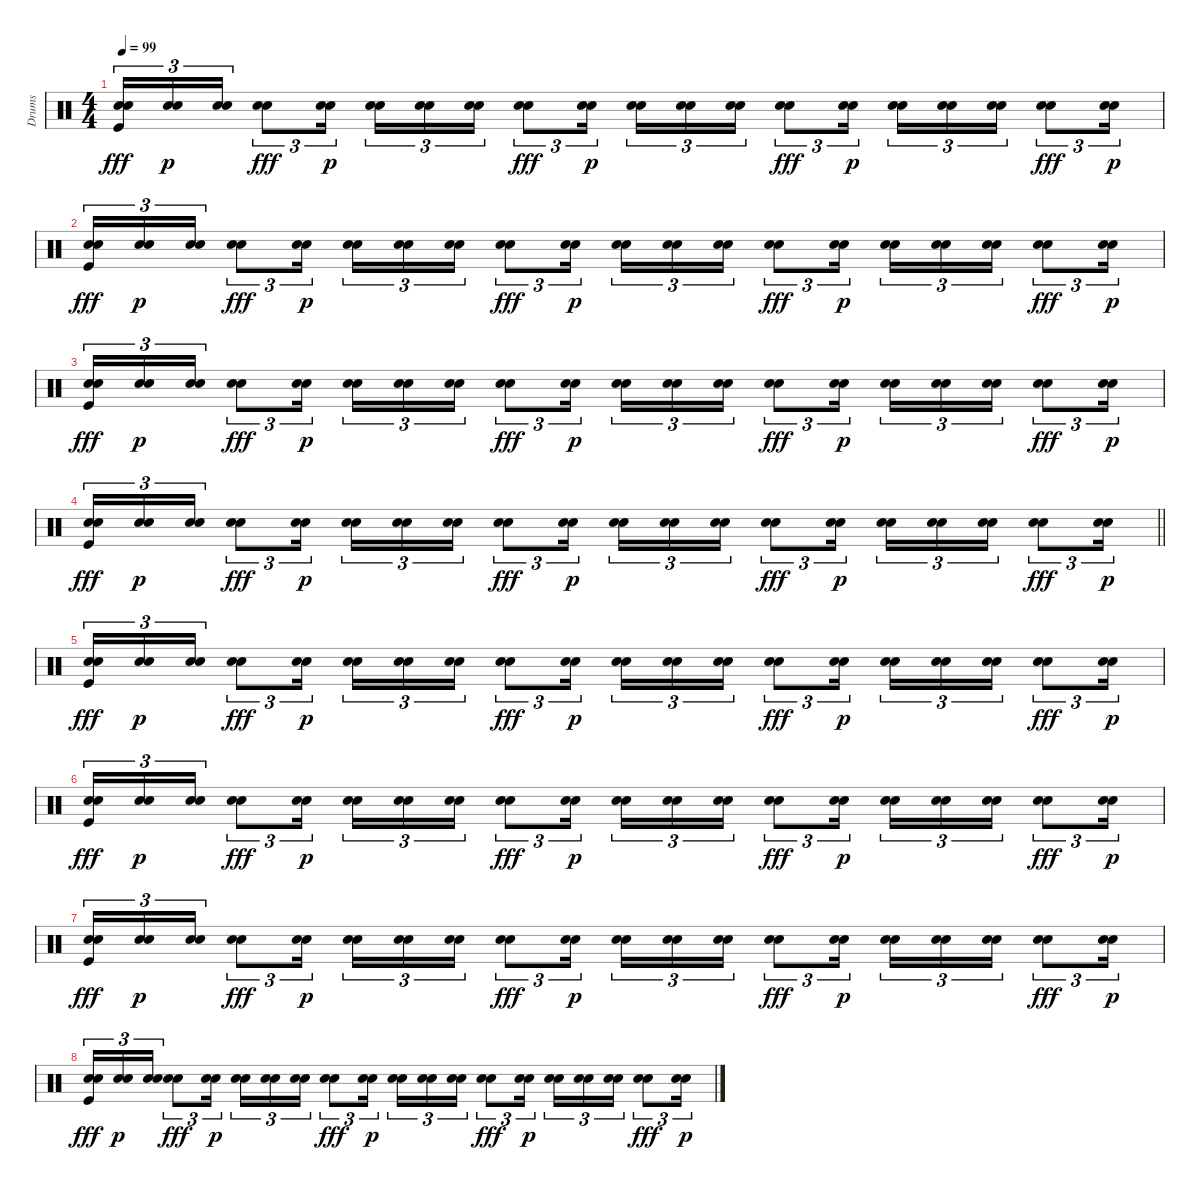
\track ("Drums" "Drums") {instrument percussion}
\staff {score}
\articulation defaults
\ts (4 4)
\tempo 99
\clef neutral
\ks c
("Snare (hit) 2" "Electric Snare (hit)" "Kick (hit)").16{tu (3 2) dy fff} ("Snare (hit) 2" "Electric Snare (hit)").16{tu (3 2) dy p} ("Snare (hit) 2" "Electric Snare (hit)").16{tu (3 2)} ("Snare (hit) 2" "Electric Snare (hit)").8{tu (3 2) dy fff} ("Snare (hit) 2" "Electric Snare (hit)").16{tu (3 2) dy p} ("Snare (hit) 2" "Electric Snare (hit)").16{tu (3 2)} ("Snare (hit) 2" "Electric Snare (hit)").16{tu (3 2)} ("Snare (hit) 2" "Electric Snare (hit)").16{tu (3 2)} ("Snare (hit) 2" "Electric Snare (hit)").8{tu (3 2) dy fff} ("Snare (hit) 2" "Electric Snare (hit)").16{tu (3 2) dy p} ("Snare (hit) 2" "Electric Snare (hit)").16{tu (3 2)} ("Snare (hit) 2" "Electric Snare (hit)").16{tu (3 2)} ("Snare (hit) 2" "Electric Snare (hit)").16{tu (3 2)} ("Snare (hit) 2" "Electric Snare (hit)").8{tu (3 2) dy fff} ("Snare (hit) 2" "Electric Snare (hit)").16{tu (3 2) dy p} ("Snare (hit) 2" "Electric Snare (hit)").16{tu (3 2)} ("Snare (hit) 2" "Electric Snare (hit)").16{tu (3 2)} ("Snare (hit) 2" "Electric Snare (hit)").16{tu (3 2)} ("Snare (hit) 2" "Electric Snare (hit)").8{tu (3 2) dy fff} ("Snare (hit) 2" "Electric Snare (hit)").16{tu (3 2) dy p} |
("Snare (hit) 2" "Electric Snare (hit)" "Kick (hit)").16{tu (3 2) dy fff} ("Snare (hit) 2" "Electric Snare (hit)").16{tu (3 2) dy p} ("Snare (hit) 2" "Electric Snare (hit)").16{tu (3 2)} ("Snare (hit) 2" "Electric Snare (hit)").8{tu (3 2) dy fff} ("Snare (hit) 2" "Electric Snare (hit)").16{tu (3 2) dy p} ("Snare (hit) 2" "Electric Snare (hit)").16{tu (3 2)} ("Snare (hit) 2" "Electric Snare (hit)").16{tu (3 2)} ("Snare (hit) 2" "Electric Snare (hit)").16{tu (3 2)} ("Snare (hit) 2" "Electric Snare (hit)").8{tu (3 2) dy fff} ("Snare (hit) 2" "Electric Snare (hit)").16{tu (3 2) dy p} ("Snare (hit) 2" "Electric Snare (hit)").16{tu (3 2)} ("Snare (hit) 2" "Electric Snare (hit)").16{tu (3 2)} ("Snare (hit) 2" "Electric Snare (hit)").16{tu (3 2)} ("Snare (hit) 2" "Electric Snare (hit)").8{tu (3 2) dy fff} ("Snare (hit) 2" "Electric Snare (hit)").16{tu (3 2) dy p} ("Snare (hit) 2" "Electric Snare (hit)").16{tu (3 2)} ("Snare (hit) 2" "Electric Snare (hit)").16{tu (3 2)} ("Snare (hit) 2" "Electric Snare (hit)").16{tu (3 2)} ("Snare (hit) 2" "Electric Snare (hit)").8{tu (3 2) dy fff} ("Snare (hit) 2" "Electric Snare (hit)").16{tu (3 2) dy p} |
("Snare (hit) 2" "Electric Snare (hit)" "Kick (hit)").16{tu (3 2) dy fff} ("Snare (hit) 2" "Electric Snare (hit)").16{tu (3 2) dy p} ("Snare (hit) 2" "Electric Snare (hit)").16{tu (3 2)} ("Snare (hit) 2" "Electric Snare (hit)").8{tu (3 2) dy fff} ("Snare (hit) 2" "Electric Snare (hit)").16{tu (3 2) dy p} ("Snare (hit) 2" "Electric Snare (hit)").16{tu (3 2)} ("Snare (hit) 2" "Electric Snare (hit)").16{tu (3 2)} ("Snare (hit) 2" "Electric Snare (hit)").16{tu (3 2)} ("Snare (hit) 2" "Electric Snare (hit)").8{tu (3 2) dy fff} ("Snare (hit) 2" "Electric Snare (hit)").16{tu (3 2) dy p} ("Snare (hit) 2" "Electric Snare (hit)").16{tu (3 2)} ("Snare (hit) 2" "Electric Snare (hit)").16{tu (3 2)} ("Snare (hit) 2" "Electric Snare (hit)").16{tu (3 2)} ("Snare (hit) 2" "Electric Snare (hit)").8{tu (3 2) dy fff} ("Snare (hit) 2" "Electric Snare (hit)").16{tu (3 2) dy p} ("Snare (hit) 2" "Electric Snare (hit)").16{tu (3 2)} ("Snare (hit) 2" "Electric Snare (hit)").16{tu (3 2)} ("Snare (hit) 2" "Electric Snare (hit)").16{tu (3 2)} ("Snare (hit) 2" "Electric Snare (hit)").8{tu (3 2) dy fff} ("Snare (hit) 2" "Electric Snare (hit)").16{tu (3 2) dy p} |
\barLineRight lightlight
("Snare (hit) 2" "Electric Snare (hit)" "Kick (hit)").16{tu (3 2) dy fff} ("Snare (hit) 2" "Electric Snare (hit)").16{tu (3 2) dy p} ("Snare (hit) 2" "Electric Snare (hit)").16{tu (3 2)} ("Snare (hit) 2" "Electric Snare (hit)").8{tu (3 2) dy fff} ("Snare (hit) 2" "Electric Snare (hit)").16{tu (3 2) dy p} ("Snare (hit) 2" "Electric Snare (hit)").16{tu (3 2)} ("Snare (hit) 2" "Electric Snare (hit)").16{tu (3 2)} ("Snare (hit) 2" "Electric Snare (hit)").16{tu (3 2)} ("Snare (hit) 2" "Electric Snare (hit)").8{tu (3 2) dy fff} ("Snare (hit) 2" "Electric Snare (hit)").16{tu (3 2) dy p} ("Snare (hit) 2" "Electric Snare (hit)").16{tu (3 2)} ("Snare (hit) 2" "Electric Snare (hit)").16{tu (3 2)} ("Snare (hit) 2" "Electric Snare (hit)").16{tu (3 2)} ("Snare (hit) 2" "Electric Snare (hit)").8{tu (3 2) dy fff} ("Snare (hit) 2" "Electric Snare (hit)").16{tu (3 2) dy p} ("Snare (hit) 2" "Electric Snare (hit)").16{tu (3 2)} ("Snare (hit) 2" "Electric Snare (hit)").16{tu (3 2)} ("Snare (hit) 2" "Electric Snare (hit)").16{tu (3 2)} ("Snare (hit) 2" "Electric Snare (hit)").8{tu (3 2) dy fff} ("Snare (hit) 2" "Electric Snare (hit)").16{tu (3 2) dy p} |
("Snare (hit) 2" "Electric Snare (hit)" "Kick (hit)").16{tu (3 2) dy fff} ("Snare (hit) 2" "Electric Snare (hit)").16{tu (3 2) dy p} ("Snare (hit) 2" "Electric Snare (hit)").16{tu (3 2)} ("Snare (hit) 2" "Electric Snare (hit)").8{tu (3 2) dy fff} ("Snare (hit) 2" "Electric Snare (hit)").16{tu (3 2) dy p} ("Snare (hit) 2" "Electric Snare (hit)").16{tu (3 2)} ("Snare (hit) 2" "Electric Snare (hit)").16{tu (3 2)} ("Snare (hit) 2" "Electric Snare (hit)").16{tu (3 2)} ("Snare (hit) 2" "Electric Snare (hit)").8{tu (3 2) dy fff} ("Snare (hit) 2" "Electric Snare (hit)").16{tu (3 2) dy p} ("Snare (hit) 2" "Electric Snare (hit)").16{tu (3 2)} ("Snare (hit) 2" "Electric Snare (hit)").16{tu (3 2)} ("Snare (hit) 2" "Electric Snare (hit)").16{tu (3 2)} ("Snare (hit) 2" "Electric Snare (hit)").8{tu (3 2) dy fff} ("Snare (hit) 2" "Electric Snare (hit)").16{tu (3 2) dy p} ("Snare (hit) 2" "Electric Snare (hit)").16{tu (3 2)} ("Snare (hit) 2" "Electric Snare (hit)").16{tu (3 2)} ("Snare (hit) 2" "Electric Snare (hit)").16{tu (3 2)} ("Snare (hit) 2" "Electric Snare (hit)").8{tu (3 2) dy fff} ("Snare (hit) 2" "Electric Snare (hit)").16{tu (3 2) dy p} |
("Snare (hit) 2" "Electric Snare (hit)" "Kick (hit)").16{tu (3 2) dy fff} ("Snare (hit) 2" "Electric Snare (hit)").16{tu (3 2) dy p} ("Snare (hit) 2" "Electric Snare (hit)").16{tu (3 2)} ("Snare (hit) 2" "Electric Snare (hit)").8{tu (3 2) dy fff} ("Snare (hit) 2" "Electric Snare (hit)").16{tu (3 2) dy p} ("Snare (hit) 2" "Electric Snare (hit)").16{tu (3 2)} ("Snare (hit) 2" "Electric Snare (hit)").16{tu (3 2)} ("Snare (hit) 2" "Electric Snare (hit)").16{tu (3 2)} ("Snare (hit) 2" "Electric Snare (hit)").8{tu (3 2) dy fff} ("Snare (hit) 2" "Electric Snare (hit)").16{tu (3 2) dy p} ("Snare (hit) 2" "Electric Snare (hit)").16{tu (3 2)} ("Snare (hit) 2" "Electric Snare (hit)").16{tu (3 2)} ("Snare (hit) 2" "Electric Snare (hit)").16{tu (3 2)} ("Snare (hit) 2" "Electric Snare (hit)").8{tu (3 2) dy fff} ("Snare (hit) 2" "Electric Snare (hit)").16{tu (3 2) dy p} ("Snare (hit) 2" "Electric Snare (hit)").16{tu (3 2)} ("Snare (hit) 2" "Electric Snare (hit)").16{tu (3 2)} ("Snare (hit) 2" "Electric Snare (hit)").16{tu (3 2)} ("Snare (hit) 2" "Electric Snare (hit)").8{tu (3 2) dy fff} ("Snare (hit) 2" "Electric Snare (hit)").16{tu (3 2) dy p} |
("Snare (hit) 2" "Electric Snare (hit)" "Kick (hit)").16{tu (3 2) dy fff} ("Snare (hit) 2" "Electric Snare (hit)").16{tu (3 2) dy p} ("Snare (hit) 2" "Electric Snare (hit)").16{tu (3 2)} ("Snare (hit) 2" "Electric Snare (hit)").8{tu (3 2) dy fff} ("Snare (hit) 2" "Electric Snare (hit)").16{tu (3 2) dy p} ("Snare (hit) 2" "Electric Snare (hit)").16{tu (3 2)} ("Snare (hit) 2" "Electric Snare (hit)").16{tu (3 2)} ("Snare (hit) 2" "Electric Snare (hit)").16{tu (3 2)} ("Snare (hit) 2" "Electric Snare (hit)").8{tu (3 2) dy fff} ("Snare (hit) 2" "Electric Snare (hit)").16{tu (3 2) dy p} ("Snare (hit) 2" "Electric Snare (hit)").16{tu (3 2)} ("Snare (hit) 2" "Electric Snare (hit)").16{tu (3 2)} ("Snare (hit) 2" "Electric Snare (hit)").16{tu (3 2)} ("Snare (hit) 2" "Electric Snare (hit)").8{tu (3 2) dy fff} ("Snare (hit) 2" "Electric Snare (hit)").16{tu (3 2) dy p} ("Snare (hit) 2" "Electric Snare (hit)").16{tu (3 2)} ("Snare (hit) 2" "Electric Snare (hit)").16{tu (3 2)} ("Snare (hit) 2" "Electric Snare (hit)").16{tu (3 2)} ("Snare (hit) 2" "Electric Snare (hit)").8{tu (3 2) dy fff} ("Snare (hit) 2" "Electric Snare (hit)").16{tu (3 2) dy p} |
("Snare (hit) 2" "Electric Snare (hit)" "Kick (hit)").16{tu (3 2) dy fff} ("Snare (hit) 2" "Electric Snare (hit)").16{tu (3 2) dy p} ("Snare (hit) 2" "Electric Snare (hit)").16{tu (3 2)} ("Snare (hit) 2" "Electric Snare (hit)").8{tu (3 2) dy fff} ("Snare (hit) 2" "Electric Snare (hit)").16{tu (3 2) dy p} ("Snare (hit) 2" "Electric Snare (hit)").16{tu (3 2)} ("Snare (hit) 2" "Electric Snare (hit)").16{tu (3 2)} ("Snare (hit) 2" "Electric Snare (hit)").16{tu (3 2)} ("Snare (hit) 2" "Electric Snare (hit)").8{tu (3 2) dy fff} ("Snare (hit) 2" "Electric Snare (hit)").16{tu (3 2) dy p} ("Snare (hit) 2" "Electric Snare (hit)").16{tu (3 2)} ("Snare (hit) 2" "Electric Snare (hit)").16{tu (3 2)} ("Snare (hit) 2" "Electric Snare (hit)").16{tu (3 2)} ("Snare (hit) 2" "Electric Snare (hit)").8{tu (3 2) dy fff} ("Snare (hit) 2" "Electric Snare (hit)").16{tu (3 2) dy p} ("Snare (hit) 2" "Electric Snare (hit)").16{tu (3 2)} ("Snare (hit) 2" "Electric Snare (hit)").16{tu (3 2)} ("Snare (hit) 2" "Electric Snare (hit)").16{tu (3 2)} ("Snare (hit) 2" "Electric Snare (hit)").8{tu (3 2) dy fff} ("Snare (hit) 2" "Electric Snare (hit)").16{tu (3 2) dy p}
